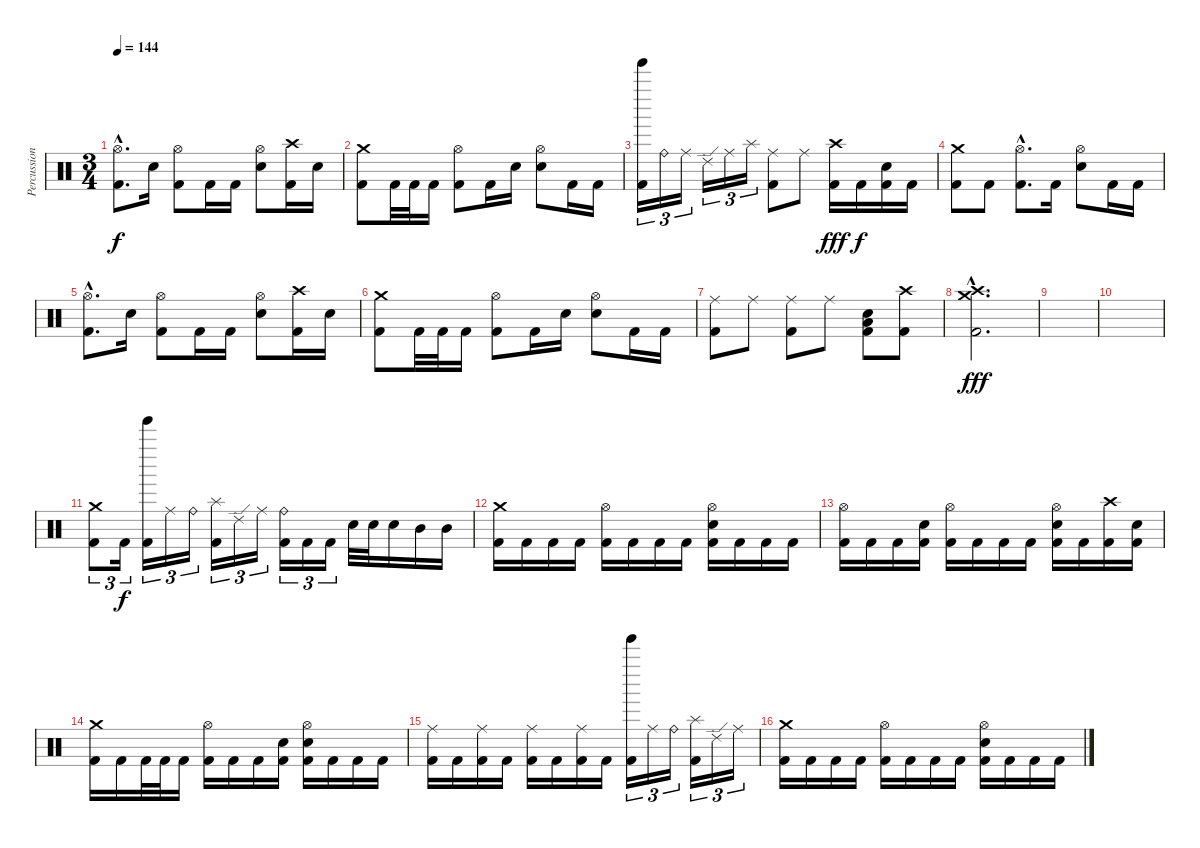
\track ("Percussion" "Percussion") {instrument percussion}
\staff {score}
\articulation defaults
\ts (3 4)
\tempo 144
\clef neutral
\ks c
("Hi-Hat (open)"{hac} "Kick (hit) 2"{hac}).8{d dy f} "Electric Snare (hit)".16 ("Hi-Hat (open)" "Kick (hit) 2").8 "Kick (hit) 2".16 "Kick (hit) 2".16 ("Hi-Hat (open)" "Electric Snare (hit)").8 ("Crash high (hit)" "Kick (hit) 2").16 "Electric Snare (hit)".16 |
("Crash medium (hit)" "Kick (hit) 2").8 "Kick (hit) 2".32 "Kick (hit) 2".32 "Kick (hit) 2".16 ("Hi-Hat (open)" "Kick (hit) 2").8 "Kick (hit) 2".16 "Electric Snare (hit)".16 ("Hi-Hat (open)" "Electric Snare (hit)").8 "Kick (hit) 2".16 "Kick (hit) 2".16 |
("Tinkle Bell (hit)" "Kick (hit) 2").16{tu (3 2)} "Ride (bell)".16{tu (3 2)} "Ride (middle)".16{tu (3 2)} "Ride (edge) 2".16{tu (3 2)} "Ride (middle)".16{tu (3 2)} "Splash (hit)".16{tu (3 2)} ("Ride (middle)" "Kick (hit) 2").8 "Ride (middle)".8 ("Crash high (hit)" "Kick (hit) 2").16{dy fff} "Kick (hit) 2".16{dy f} ("Electric Snare (hit)" "Kick (hit) 2").16 "Kick (hit) 2".16 |
("Crash medium (hit)" "Kick (hit) 2").8 "Kick (hit) 2".8 ("Hi-Hat (open)"{hac} "Kick (hit) 2"{hac}).8{d} "Kick (hit) 2".16 ("Hi-Hat (open)" "Electric Snare (hit)").8 "Kick (hit) 2".16 "Kick (hit) 2".16 |
("Hi-Hat (open)"{hac} "Kick (hit) 2"{hac}).8{d} "Electric Snare (hit)".16 ("Hi-Hat (open)" "Kick (hit) 2").8 "Kick (hit) 2".16 "Kick (hit) 2".16 ("Hi-Hat (open)" "Electric Snare (hit)").8 ("Crash high (hit)" "Kick (hit) 2").16 "Electric Snare (hit)".16 |
("Crash medium (hit)" "Kick (hit) 2").8 "Kick (hit) 2".32 "Kick (hit) 2".32 "Kick (hit) 2".16 ("Hi-Hat (open)" "Kick (hit) 2").8 "Kick (hit) 2".16 "Electric Snare (hit)".16 ("Hi-Hat (open)" "Electric Snare (hit)").8 "Kick (hit) 2".16 "Kick (hit) 2".16 |
("Ride (middle)" "Kick (hit) 2").8 "Ride (middle)".8 ("Ride (middle)" "Kick (hit) 2").8 "Ride (middle)".8 ("Low Tom (hit)" "Electric Snare (hit)" "Kick (hit) 2").8 ("Crash high (hit)" "Kick (hit) 2").8 |
("Crash high (hit)"{hac} "Crash medium (hit)"{hac} "Kick (hit) 2"{hac}).2{d dy fff} |
|
|
("Crash medium (hit)" "Kick (hit) 2").8{tu (3 2)} "Kick (hit) 2".16{tu (3 2) dy f} ("Tinkle Bell (hit)" "Kick (hit) 2").16{tu (3 2)} "Ride (middle)".16{tu (3 2)} "Ride (bell)".16{tu (3 2)} ("Splash (hit)" "Kick (hit) 2").16{tu (3 2)} "Ride (edge) 2".16{tu (3 2)} "Ride (middle)".16{tu (3 2)} ("Ride (bell)" "Kick (hit) 2").16{tu (3 2)} "Kick (hit) 2".16{tu (3 2)} "Kick (hit) 2".16{tu (3 2)} "Electric Snare (hit)".32 "Electric Snare (hit)".32 "Electric Snare (hit)".16 "Mid Tom (hit)".16 "Mid Tom (hit)".16 |
("Crash medium (hit)" "Kick (hit) 2").16 "Kick (hit) 2".16 "Kick (hit) 2".16 "Kick (hit) 2".16 ("Hi-Hat (open)" "Kick (hit) 2").16 "Kick (hit) 2".16 "Kick (hit) 2".16 "Kick (hit) 2".16 ("Hi-Hat (open)" "Electric Snare (hit)" "Kick (hit) 2").16 "Kick (hit) 2".16 "Kick (hit) 2".16 "Kick (hit) 2".16 |
("Hi-Hat (open)" "Kick (hit) 2").16 "Kick (hit) 2".16 "Kick (hit) 2".16 ("Electric Snare (hit)" "Kick (hit) 2").16 ("Hi-Hat (open)" "Kick (hit) 2").16 "Kick (hit) 2".16 "Kick (hit) 2".16 "Kick (hit) 2".16 ("Hi-Hat (open)" "Electric Snare (hit)" "Kick (hit) 2").16 "Kick (hit) 2".16 ("Crash high (hit)" "Kick (hit) 2").16 ("Electric Snare (hit)" "Kick (hit) 2").16 |
("Crash medium (hit)" "Kick (hit) 2").16 "Kick (hit) 2".16 "Kick (hit) 2".32 "Kick (hit) 2".32 "Kick (hit) 2".16 ("Hi-Hat (open)" "Kick (hit) 2").16 "Kick (hit) 2".16 "Kick (hit) 2".16 ("Electric Snare (hit)" "Kick (hit) 2").16 ("Hi-Hat (open)" "Electric Snare (hit)" "Kick (hit) 2").16 "Kick (hit) 2".16 "Kick (hit) 2".16 "Kick (hit) 2".16 |
("Ride (middle)" "Kick (hit) 2").16 "Kick (hit) 2".16 ("Ride (middle)" "Kick (hit) 2").16 "Kick (hit) 2".16 ("Ride (middle)" "Kick (hit) 2").16 "Kick (hit) 2".16 ("Ride (middle)" "Kick (hit) 2").16 "Kick (hit) 2".16 ("Tinkle Bell (hit)" "Kick (hit) 2").16{tu (3 2)} "Ride (middle)".16{tu (3 2)} "Ride (bell)".16{tu (3 2)} ("Splash (hit)" "Kick (hit) 2").16{tu (3 2)} "Ride (edge) 2".16{tu (3 2)} "Ride (middle)".16{tu (3 2)} |
("Crash medium (hit)" "Kick (hit) 2").16 "Kick (hit) 2".16 "Kick (hit) 2".16 "Kick (hit) 2".16 ("Hi-Hat (open)" "Kick (hit) 2").16 "Kick (hit) 2".16 "Kick (hit) 2".16 "Kick (hit) 2".16 ("Hi-Hat (open)" "Electric Snare (hit)" "Kick (hit) 2").16 "Kick (hit) 2".16 "Kick (hit) 2".16 "Kick (hit) 2".16
